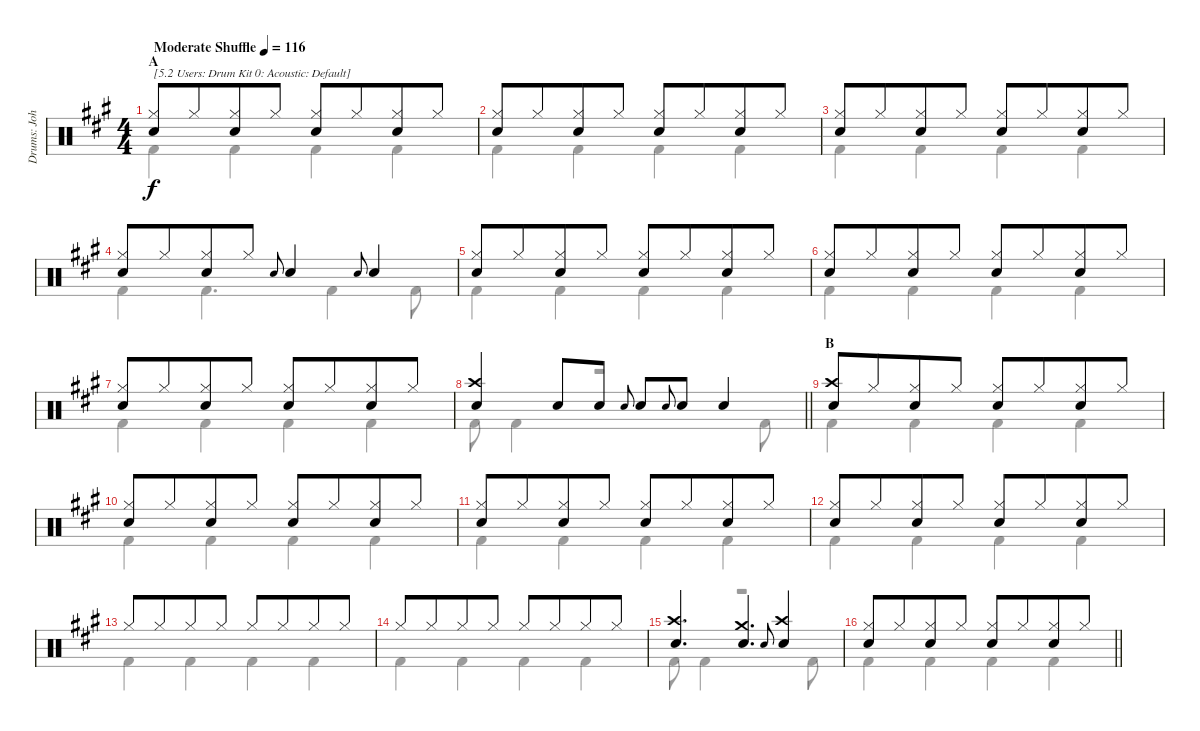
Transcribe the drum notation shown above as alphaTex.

\track ("Drums: John" "Drums: Joh") {instrument percussion}
\staff {score}
\articulation defaults
\voice
\ts (4 4)
\section ("" "A")
\tempo (116 "Moderate Shuffle")
\clef neutral
\ks a
("Hi-Hat (closed)" "Electric Snare (hit)").8{txt "[5.2 Users: Drum Kit 0: Acoustic: Default]" dy f} "Hi-Hat (closed)".8{beam merge} ("Hi-Hat (closed)" "Electric Snare (hit)").8 "Hi-Hat (closed)".8 ("Hi-Hat (closed)" "Electric Snare (hit)").8 "Hi-Hat (closed)".8{beam merge} ("Hi-Hat (closed)" "Electric Snare (hit)").8 "Hi-Hat (closed)".8 |
("Hi-Hat (closed)" "Electric Snare (hit)").8 "Hi-Hat (closed)".8{beam merge} ("Hi-Hat (closed)" "Electric Snare (hit)").8 "Hi-Hat (closed)".8 ("Hi-Hat (closed)" "Electric Snare (hit)").8 "Hi-Hat (closed)".8{beam merge} ("Hi-Hat (closed)" "Electric Snare (hit)").8 "Hi-Hat (closed)".8 |
("Hi-Hat (closed)" "Electric Snare (hit)").8 "Hi-Hat (closed)".8{beam merge} ("Hi-Hat (closed)" "Electric Snare (hit)").8 "Hi-Hat (closed)".8 ("Hi-Hat (closed)" "Electric Snare (hit)").8 "Hi-Hat (closed)".8{beam merge} ("Hi-Hat (closed)" "Electric Snare (hit)").8 "Hi-Hat (closed)".8 |
("Hi-Hat (closed)" "Electric Snare (hit)").8 "Hi-Hat (closed)".8{beam merge} ("Hi-Hat (closed)" "Electric Snare (hit)").8 "Hi-Hat (closed)".8 "Snare (hit) 2".8{gr onbeat} "Electric Snare (hit)".4 "Snare (hit) 2".8{gr onbeat} "Electric Snare (hit)".4 |
("Hi-Hat (closed)" "Electric Snare (hit)").8 "Hi-Hat (closed)".8{beam merge} ("Hi-Hat (closed)" "Electric Snare (hit)").8 "Hi-Hat (closed)".8 ("Hi-Hat (closed)" "Electric Snare (hit)").8 "Hi-Hat (closed)".8{beam merge} ("Hi-Hat (closed)" "Electric Snare (hit)").8 "Hi-Hat (closed)".8 |
("Hi-Hat (closed)" "Electric Snare (hit)").8 "Hi-Hat (closed)".8{beam merge} ("Hi-Hat (closed)" "Electric Snare (hit)").8 "Hi-Hat (closed)".8 ("Hi-Hat (closed)" "Electric Snare (hit)").8 "Hi-Hat (closed)".8{beam merge} ("Hi-Hat (closed)" "Electric Snare (hit)").8 "Hi-Hat (closed)".8 |
("Hi-Hat (closed)" "Electric Snare (hit)").8 "Hi-Hat (closed)".8{beam merge} ("Hi-Hat (closed)" "Electric Snare (hit)").8 "Hi-Hat (closed)".8 ("Hi-Hat (closed)" "Electric Snare (hit)").8 "Hi-Hat (closed)".8{beam merge} ("Hi-Hat (closed)" "Electric Snare (hit)").8 "Hi-Hat (closed)".8 |
\barLineRight lightlight
("Crash high (hit)" "Electric Snare (hit)").4{beam merge} "Electric Snare (hit)".8 "Electric Snare (hit)".8 "Snare (hit) 2".8{gr onbeat} "Electric Snare (hit)".8 "Snare (hit) 2".8{gr onbeat} "Electric Snare (hit)".8{beam merge} "Snare (hit) 2".4 |
\section ("" "B")
("Crash high (hit)" "Electric Snare (hit)").8 "Hi-Hat (closed)".8{beam merge} ("Hi-Hat (closed)" "Electric Snare (hit)").8 "Hi-Hat (closed)".8 ("Hi-Hat (closed)" "Electric Snare (hit)").8 "Hi-Hat (closed)".8{beam merge} ("Hi-Hat (closed)" "Electric Snare (hit)").8 "Hi-Hat (closed)".8 |
("Hi-Hat (closed)" "Electric Snare (hit)").8 "Hi-Hat (closed)".8{beam merge} ("Hi-Hat (closed)" "Electric Snare (hit)").8 "Hi-Hat (closed)".8 ("Hi-Hat (closed)" "Electric Snare (hit)").8 "Hi-Hat (closed)".8{beam merge} ("Hi-Hat (closed)" "Electric Snare (hit)").8 "Hi-Hat (closed)".8 |
("Hi-Hat (closed)" "Electric Snare (hit)").8 "Hi-Hat (closed)".8{beam merge} ("Hi-Hat (closed)" "Electric Snare (hit)").8 "Hi-Hat (closed)".8 ("Hi-Hat (closed)" "Electric Snare (hit)").8 "Hi-Hat (closed)".8{beam merge} ("Hi-Hat (closed)" "Electric Snare (hit)").8 "Hi-Hat (closed)".8 |
("Hi-Hat (closed)" "Electric Snare (hit)").8 "Hi-Hat (closed)".8{beam merge} ("Hi-Hat (closed)" "Electric Snare (hit)").8 "Hi-Hat (closed)".8 ("Hi-Hat (closed)" "Electric Snare (hit)").8 "Hi-Hat (closed)".8{beam merge} ("Hi-Hat (closed)" "Electric Snare (hit)").8 "Hi-Hat (closed)".8 |
"Hi-Hat (closed)".8 "Hi-Hat (closed)".8{beam merge} "Hi-Hat (closed)".8 "Hi-Hat (closed)".8 "Hi-Hat (closed)".8 "Hi-Hat (closed)".8{beam merge} "Hi-Hat (closed)".8 "Hi-Hat (closed)".8 |
"Hi-Hat (closed)".8 "Hi-Hat (closed)".8{beam merge} "Hi-Hat (closed)".8 "Hi-Hat (closed)".8 "Hi-Hat (closed)".8 "Hi-Hat (closed)".8{beam merge} "Hi-Hat (closed)".8 "Hi-Hat (closed)".8 |
("Crash high (hit)" "Electric Snare (hit)").4{d beam merge} ("Crash medium (hit)" "Electric Snare (hit)").4{d} "Snare (hit) 2".8{gr onbeat} ("Crash high (hit)" "Electric Snare (hit)").4 |
\barLineRight lightlight
("Hi-Hat (closed)" "Electric Snare (hit)").8 "Hi-Hat (closed)".8{beam merge} ("Hi-Hat (closed)" "Electric Snare (hit)").8 "Hi-Hat (closed)".8 ("Hi-Hat (closed)" "Electric Snare (hit)").8 "Hi-Hat (closed)".8{beam merge} ("Hi-Hat (closed)" "Electric Snare (hit)").8 "Hi-Hat (closed)".8
\voice
\clef neutral
\ottava regular
\simile none
\ks a "Kick (hit) 2".4{dy f} "Kick (hit) 2".4 "Kick (hit) 2".4 "Kick (hit) 2".4
|
"Kick (hit) 2".4 "Kick (hit) 2".4 "Kick (hit) 2".4 "Kick (hit) 2".4 |
"Kick (hit) 2".4 "Kick (hit) 2".4 "Kick (hit) 2".4 "Kick (hit) 2".4 |
"Kick (hit) 2".4 "Kick (hit) 2".4{d} "Kick (hit) 2".4 "Kick (hit) 2".8 |
"Kick (hit) 2".4 "Kick (hit) 2".4 "Kick (hit) 2".4 "Kick (hit) 2".4 |
"Kick (hit) 2".4 "Kick (hit) 2".4 "Kick (hit) 2".4 "Kick (hit) 2".4 |
"Kick (hit) 2".4 "Kick (hit) 2".4 "Kick (hit) 2".4 "Kick (hit) 2".4 |
\barLineRight lightlight "Kick (hit) 2".8 "Kick (hit) 2".4
r.2 "Kick (hit) 2".8 |
"Kick (hit) 2".4 "Kick (hit) 2".4 "Kick (hit) 2".4 "Kick (hit) 2".4 |
"Kick (hit) 2".4 "Kick (hit) 2".4 "Kick (hit) 2".4 "Kick (hit) 2".4 |
"Kick (hit) 2".4 "Kick (hit) 2".4 "Kick (hit) 2".4 "Kick (hit) 2".4 |
"Kick (hit) 2".4 "Kick (hit) 2".4 "Kick (hit) 2".4 "Kick (hit) 2".4 |
"Kick (hit) 2".4 "Kick (hit) 2".4 "Kick (hit) 2".4 "Kick (hit) 2".4 |
"Kick (hit) 2".4 "Kick (hit) 2".4 "Kick (hit) 2".4 "Kick (hit) 2".4 |
"Kick (hit) 2".8 "Kick (hit) 2".4 r.2 "Kick (hit) 2".8 |
\barLineRight lightlight "Kick (hit) 2".4 "Kick (hit) 2".4 "Kick (hit) 2".4 "Kick (hit) 2".4
